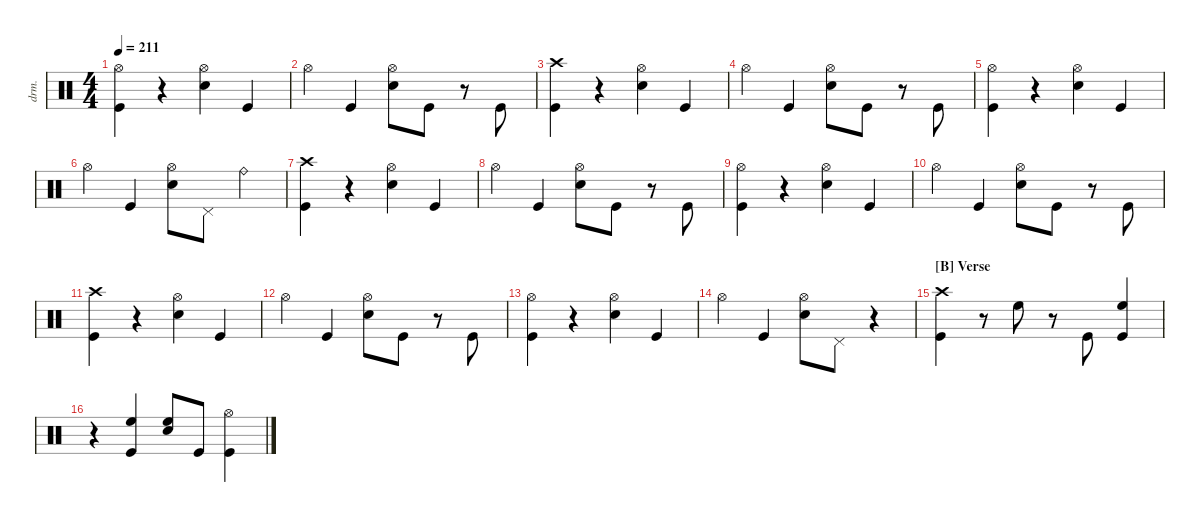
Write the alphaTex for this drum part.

\defaultSystemsLayout 4
\hideDynamics
\bracketExtendMode nobrackets
\track ("Drums" "drm.") {instrument percussion}
\staff {score}
\articulation defaults
\ts (4 4)
\tempo 211
\clef neutral
\ks c
("Kick (hit)" "Hi-Hat (open)"{acc #}).4{dy ff beam Down} r.4{beam Down} ("Snare (hit) 2" "Hi-Hat (open)"{acc #}).4{beam Down} "Kick (hit)".4{beam Up} |
"Hi-Hat (open)"{acc #}.4{beam Down} "Kick (hit)".4{beam Up} ("Snare (hit) 2" "Hi-Hat (open)"{acc #}).8{beam Down} "Kick (hit)".8{beam Down} r.8{beam Down} "Kick (hit)".8{dy mf beam Up} |
("Kick (hit)" "Crash high (hit)"{acc #}).4{dy ff beam Down} r.4{beam Down} ("Snare (hit) 2" "Hi-Hat (open)"{acc #}).4{beam Down} "Kick (hit)".4{beam Up} |
"Hi-Hat (open)"{acc #}.4{beam Down} "Kick (hit)".4{beam Up} ("Snare (hit) 2" "Hi-Hat (open)"{acc #}).8{beam Down} "Kick (hit)".8{beam Down} r.8{beam Down} "Kick (hit)".8{dy mf beam Up} |
("Kick (hit)" "Hi-Hat (open)"{acc #}).4{dy ff beam Down} r.4{beam Down} ("Snare (hit) 2" "Hi-Hat (open)"{acc #}).4{beam Down} "Kick (hit)".4{beam Up} |
"Hi-Hat (open)"{acc #}.4{beam Down} "Kick (hit)".4{dy f beam Up} ("Snare (hit) 2" "Hi-Hat (open)"{acc #}).8{dy ff beam Down} "Pedal Hi-Hat (hit)"{acc #}.8{beam Down} "Ride (bell)".4{dy fff beam Down} |
("Kick (hit)" "Crash high (hit)"{acc #}).4{dy ff beam Down} r.4{beam Down} ("Snare (hit) 2" "Hi-Hat (open)"{acc #}).4{beam Down} "Kick (hit)".4{beam Up} |
"Hi-Hat (open)"{acc #}.4{beam Down} "Kick (hit)".4{beam Up} ("Snare (hit) 2" "Hi-Hat (open)"{acc #}).8{beam Down} "Kick (hit)".8{beam Down} r.8{beam Down} "Kick (hit)".8{dy mf beam Up} |
("Kick (hit)" "Hi-Hat (open)"{acc #}).4{dy ff beam Down} r.4{beam Down} ("Snare (hit) 2" "Hi-Hat (open)"{acc #}).4{beam Down} "Kick (hit)".4{beam Up} |
"Hi-Hat (open)"{acc #}.4{beam Down} "Kick (hit)".4{beam Up} ("Snare (hit) 2" "Hi-Hat (open)"{acc #}).8{beam Down} "Kick (hit)".8{beam Down} r.8{beam Down} "Kick (hit)".8{dy mf beam Up} |
("Kick (hit)" "Crash high (hit)"{acc #}).4{dy ff beam Down} r.4{beam Down} ("Snare (hit) 2" "Hi-Hat (open)"{acc #}).4{beam Down} "Kick (hit)".4{beam Up} |
"Hi-Hat (open)"{acc #}.4{beam Down} "Kick (hit)".4{beam Up} ("Snare (hit) 2" "Hi-Hat (open)"{acc #}).8{beam Down} "Kick (hit)".8{beam Down} r.8{beam Down} "Kick (hit)".8{dy mf beam Up} |
("Kick (hit)" "Hi-Hat (open)"{acc #}).4{dy ff beam Down} r.4{beam Down} ("Snare (hit) 2" "Hi-Hat (open)"{acc #}).4{beam Down} "Kick (hit)".4{beam Up} |
"Hi-Hat (open)"{acc #}.4{beam Down} "Kick (hit)".4{beam Up} ("Snare (hit) 2" "Hi-Hat (open)"{acc #}).8{beam Down} "Pedal Hi-Hat (hit)"{acc #}.8{beam Down} r.4{beam Down} |
\section ("B" "Verse")
("Kick (hit)" "Crash high (hit)"{acc #}).4{beam Down} r.8{beam Down} "High Floor Tom (hit)".8{dy f beam Down} r.8{beam Down} "Kick (hit)".8{dy mf beam Up} ("Kick (hit)" "High Floor Tom (hit)").4{dy ff beam Up} |
r.4{beam Down} ("Kick (hit)" "High Floor Tom (hit)").4{beam Up} ("Snare (hit) 2" "High Floor Tom (hit)").8{beam Up} "Kick (hit)".8{dy mf beam Up} ("Kick (hit)" "Hi-Hat (open)"{acc #}).4{dy ff beam Down}
